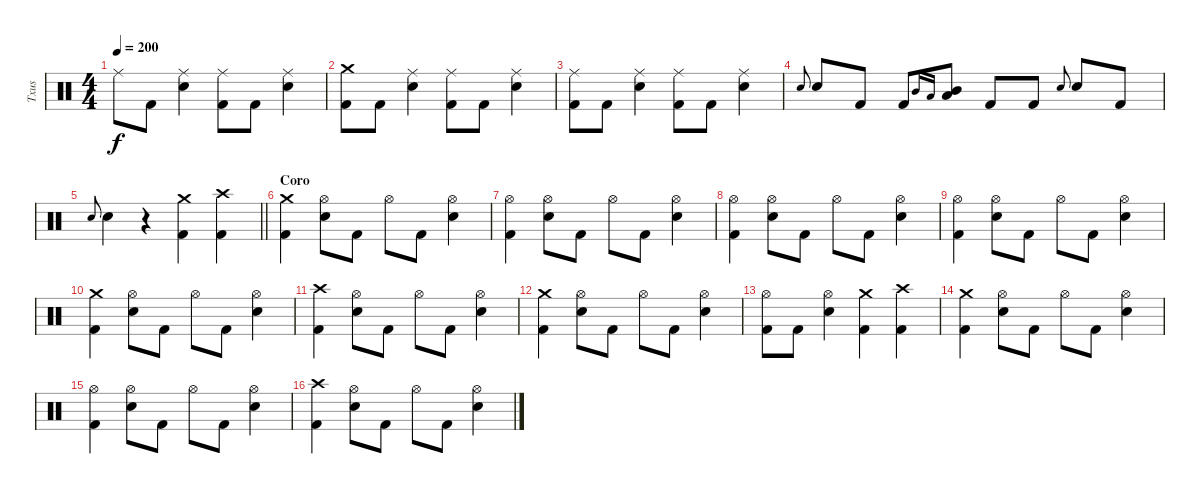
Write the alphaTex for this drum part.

\track ("Txus" "Txus") {instrument percussion}
\staff {score}
\articulation defaults
\ts (4 4)
\tempo 200
\clef neutral
\ks c "Ride (middle)".8{dy f} "Kick (hit) 2".8
("Ride (middle)" "Snare (hit) 2").4 ("Ride (middle)" "Kick (hit) 2").8 "Kick (hit) 2".8 ("Ride (middle)" "Snare (hit) 2").4 |
("Crash medium (hit)" "Kick (hit) 2").8 "Kick (hit) 2".8 ("Ride (middle)" "Snare (hit) 2").4 ("Ride (middle)" "Kick (hit) 2").8 "Kick (hit) 2".8 ("Ride (middle)" "Snare (hit) 2").4 |
("Ride (middle)" "Kick (hit) 2").8 "Kick (hit) 2".8 ("Ride (middle)" "Snare (hit) 2").4 ("Ride (middle)" "Kick (hit) 2").8 "Kick (hit) 2".8 ("Ride (middle)" "Snare (hit) 2").4 |
"Snare (hit) 2".8{gr onbeat} "Snare (hit) 2".8 "Kick (hit) 2".8 "Kick (hit) 2".8 "Mid Tom (hit)".16{gr onbeat} "Low Tom (hit)".16{gr onbeat} ("Mid Tom (hit)" "Low Tom (hit)").8 "Kick (hit) 2".8 "Kick (hit) 2".8 "Snare (hit) 2".8{gr onbeat} "Snare (hit) 2".8 "Kick (hit) 2".8 |
\barLineRight lightlight "Snare (hit) 2".8{gr onbeat} "Snare (hit) 2".4
r.4 ("Crash medium (hit)" "Kick (hit) 2").4 ("Crash high (hit)" "Kick (hit) 2").4 |
\section ("" "Coro")
("Crash medium (hit)" "Kick (hit) 2").4 ("Hi-Hat (open)" "Snare (hit) 2").8 "Kick (hit) 2".8 "Hi-Hat (open)".8 "Kick (hit) 2".8 ("Hi-Hat (open)" "Snare (hit) 2").4 |
("Hi-Hat (open)" "Kick (hit) 2").4 ("Hi-Hat (open)" "Snare (hit) 2").8 "Kick (hit) 2".8 "Hi-Hat (open)".8 "Kick (hit) 2".8 ("Hi-Hat (open)" "Snare (hit) 2").4 |
("Hi-Hat (open)" "Kick (hit) 2").4 ("Hi-Hat (open)" "Snare (hit) 2").8 "Kick (hit) 2".8 "Hi-Hat (open)".8 "Kick (hit) 2".8 ("Hi-Hat (open)" "Snare (hit) 2").4 |
("Hi-Hat (open)" "Kick (hit) 2").4 ("Hi-Hat (open)" "Snare (hit) 2").8 "Kick (hit) 2".8 "Hi-Hat (open)".8 "Kick (hit) 2".8 ("Hi-Hat (open)" "Snare (hit) 2").4 |
("Crash medium (hit)" "Kick (hit) 2").4 ("Hi-Hat (open)" "Snare (hit) 2").8 "Kick (hit) 2".8 "Hi-Hat (open)".8 "Kick (hit) 2".8 ("Hi-Hat (open)" "Snare (hit) 2").4 |
("Crash high (hit)" "Kick (hit) 2").4 ("Hi-Hat (open)" "Snare (hit) 2").8 "Kick (hit) 2".8 "Hi-Hat (open)".8 "Kick (hit) 2".8 ("Hi-Hat (open)" "Snare (hit) 2").4 |
("Crash medium (hit)" "Kick (hit) 2").4 ("Hi-Hat (open)" "Snare (hit) 2").8 "Kick (hit) 2".8 "Hi-Hat (open)".8 "Kick (hit) 2".8 ("Hi-Hat (open)" "Snare (hit) 2").4 |
("Hi-Hat (open)" "Kick (hit) 2").8 "Kick (hit) 2".8 ("Hi-Hat (open)" "Snare (hit) 2").4 ("Crash medium (hit)" "Kick (hit) 2").4 ("Crash high (hit)" "Kick (hit) 2").4 |
("Crash medium (hit)" "Kick (hit) 2").4 ("Hi-Hat (open)" "Snare (hit) 2").8 "Kick (hit) 2".8 "Hi-Hat (open)".8 "Kick (hit) 2".8 ("Hi-Hat (open)" "Snare (hit) 2").4 |
("Hi-Hat (open)" "Kick (hit) 2").4 ("Hi-Hat (open)" "Snare (hit) 2").8 "Kick (hit) 2".8 "Hi-Hat (open)".8 "Kick (hit) 2".8 ("Hi-Hat (open)" "Snare (hit) 2").4 |
("Crash high (hit)" "Kick (hit) 2").4 ("Hi-Hat (open)" "Snare (hit) 2").8 "Kick (hit) 2".8 "Hi-Hat (open)".8 "Kick (hit) 2".8 ("Hi-Hat (open)" "Snare (hit) 2").4
